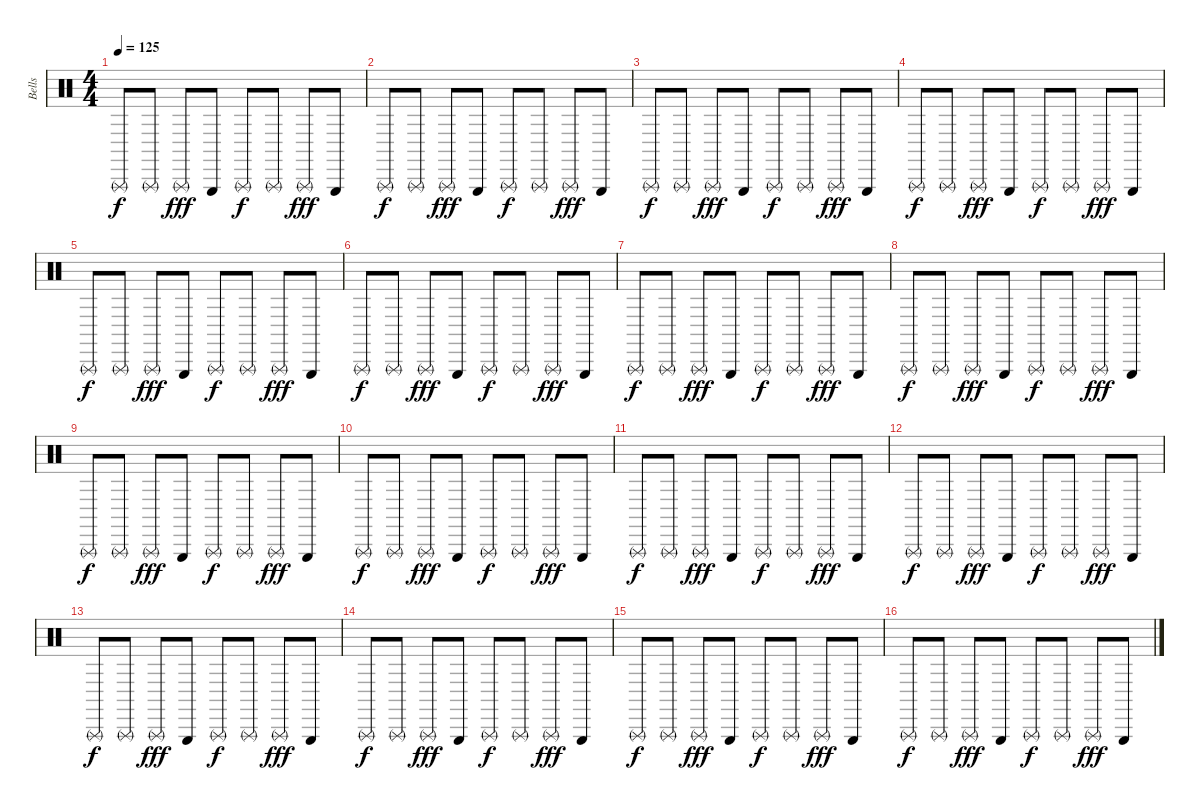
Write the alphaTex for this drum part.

\track ("Bells" "Bells") {instrument percussion}
\staff
\articulation defaults
\ts (4 4)
\tempo 125
\clef neutral
\ks c "Triangle (rnute)".8{dy f} "Triangle (rnute)".8 "Triangle (rnute)".8{dy fff} "Triangle (hit)".8 "Triangle (rnute)".8{dy f} "Triangle (rnute)".8 "Triangle (rnute)".8{dy fff} "Triangle (hit)".8
|
"Triangle (rnute)".8{dy f} "Triangle (rnute)".8 "Triangle (rnute)".8{dy fff} "Triangle (hit)".8 "Triangle (rnute)".8{dy f} "Triangle (rnute)".8 "Triangle (rnute)".8{dy fff} "Triangle (hit)".8 |
"Triangle (rnute)".8{dy f} "Triangle (rnute)".8 "Triangle (rnute)".8{dy fff} "Triangle (hit)".8 "Triangle (rnute)".8{dy f} "Triangle (rnute)".8 "Triangle (rnute)".8{dy fff} "Triangle (hit)".8 |
"Triangle (rnute)".8{dy f} "Triangle (rnute)".8 "Triangle (rnute)".8{dy fff} "Triangle (hit)".8 "Triangle (rnute)".8{dy f} "Triangle (rnute)".8 "Triangle (rnute)".8{dy fff} "Triangle (hit)".8 |
"Triangle (rnute)".8{dy f} "Triangle (rnute)".8 "Triangle (rnute)".8{dy fff} "Triangle (hit)".8 "Triangle (rnute)".8{dy f} "Triangle (rnute)".8 "Triangle (rnute)".8{dy fff} "Triangle (hit)".8 |
"Triangle (rnute)".8{dy f} "Triangle (rnute)".8 "Triangle (rnute)".8{dy fff} "Triangle (hit)".8 "Triangle (rnute)".8{dy f} "Triangle (rnute)".8 "Triangle (rnute)".8{dy fff} "Triangle (hit)".8 |
"Triangle (rnute)".8{dy f} "Triangle (rnute)".8 "Triangle (rnute)".8{dy fff} "Triangle (hit)".8 "Triangle (rnute)".8{dy f} "Triangle (rnute)".8 "Triangle (rnute)".8{dy fff} "Triangle (hit)".8 |
"Triangle (rnute)".8{dy f} "Triangle (rnute)".8 "Triangle (rnute)".8{dy fff} "Triangle (hit)".8 "Triangle (rnute)".8{dy f} "Triangle (rnute)".8 "Triangle (rnute)".8{dy fff} "Triangle (hit)".8 |
"Triangle (rnute)".8{dy f} "Triangle (rnute)".8 "Triangle (rnute)".8{dy fff} "Triangle (hit)".8 "Triangle (rnute)".8{dy f} "Triangle (rnute)".8 "Triangle (rnute)".8{dy fff} "Triangle (hit)".8 |
"Triangle (rnute)".8{dy f} "Triangle (rnute)".8 "Triangle (rnute)".8{dy fff} "Triangle (hit)".8 "Triangle (rnute)".8{dy f} "Triangle (rnute)".8 "Triangle (rnute)".8{dy fff} "Triangle (hit)".8 |
"Triangle (rnute)".8{dy f} "Triangle (rnute)".8 "Triangle (rnute)".8{dy fff} "Triangle (hit)".8 "Triangle (rnute)".8{dy f} "Triangle (rnute)".8 "Triangle (rnute)".8{dy fff} "Triangle (hit)".8 |
"Triangle (rnute)".8{dy f} "Triangle (rnute)".8 "Triangle (rnute)".8{dy fff} "Triangle (hit)".8 "Triangle (rnute)".8{dy f} "Triangle (rnute)".8 "Triangle (rnute)".8{dy fff} "Triangle (hit)".8 |
"Triangle (rnute)".8{dy f} "Triangle (rnute)".8 "Triangle (rnute)".8{dy fff} "Triangle (hit)".8 "Triangle (rnute)".8{dy f} "Triangle (rnute)".8 "Triangle (rnute)".8{dy fff} "Triangle (hit)".8 |
"Triangle (rnute)".8{dy f} "Triangle (rnute)".8 "Triangle (rnute)".8{dy fff} "Triangle (hit)".8 "Triangle (rnute)".8{dy f} "Triangle (rnute)".8 "Triangle (rnute)".8{dy fff} "Triangle (hit)".8 |
"Triangle (rnute)".8{dy f} "Triangle (rnute)".8 "Triangle (rnute)".8{dy fff} "Triangle (hit)".8 "Triangle (rnute)".8{dy f} "Triangle (rnute)".8 "Triangle (rnute)".8{dy fff} "Triangle (hit)".8 |
"Triangle (rnute)".8{dy f} "Triangle (rnute)".8 "Triangle (rnute)".8{dy fff} "Triangle (hit)".8 "Triangle (rnute)".8{dy f} "Triangle (rnute)".8 "Triangle (rnute)".8{dy fff} "Triangle (hit)".8
